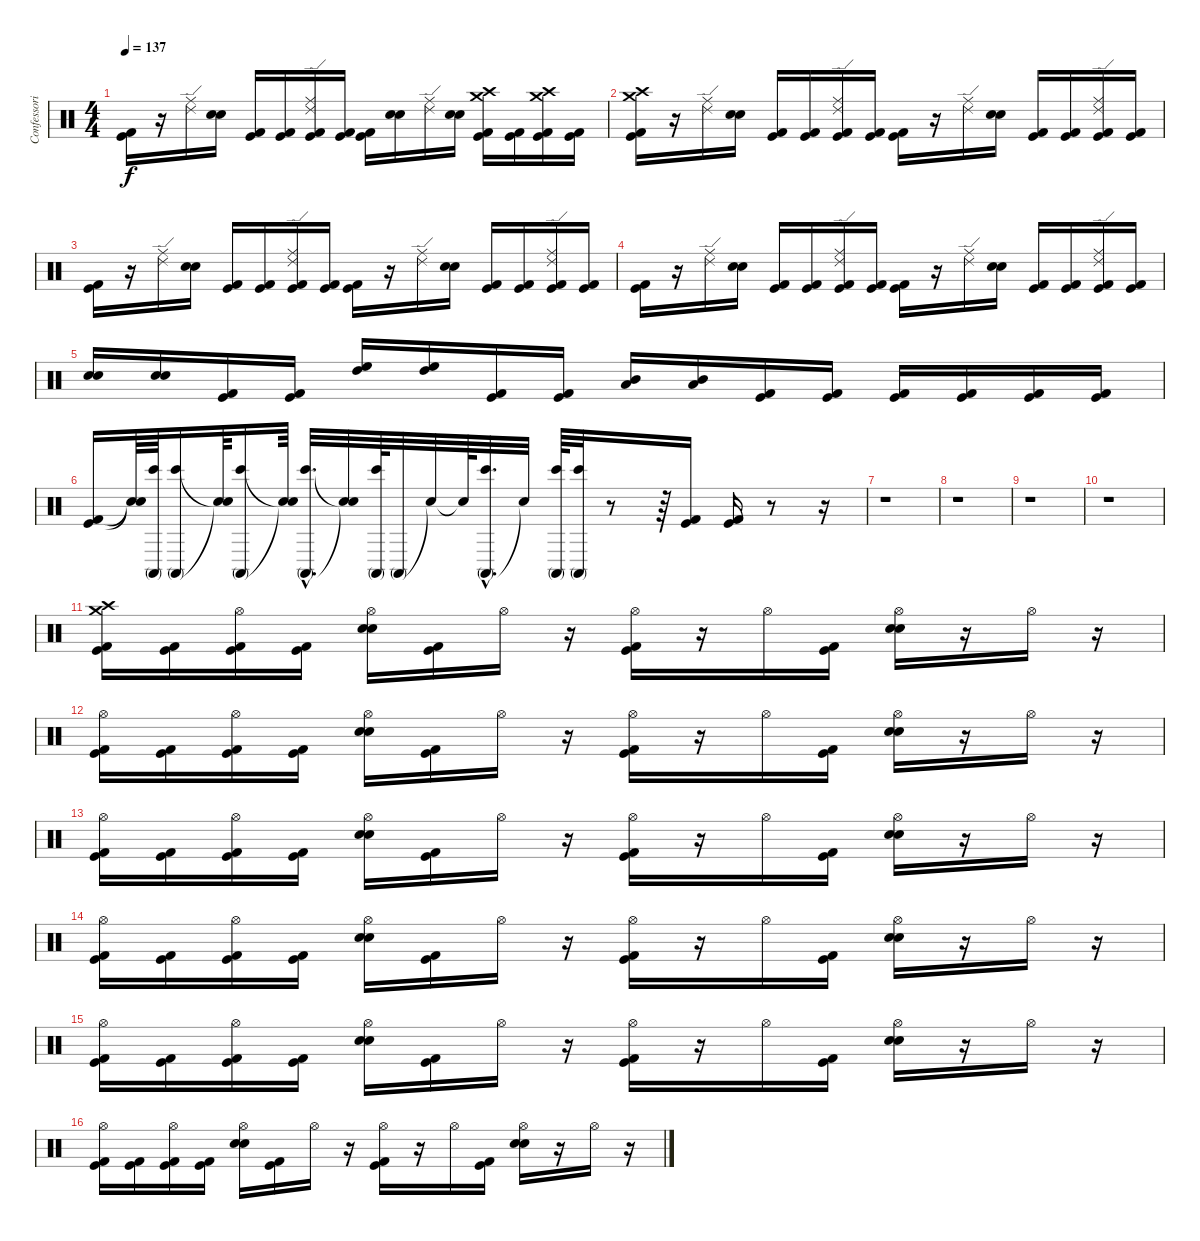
\track ("Confessori" "Confessori") {instrument percussion}
\staff {score}
\articulation defaults
\ts (4 4)
\tempo 137
\clef neutral
\ks c
("Kick (hit)" "Kick (hit) 2").16{dy f} r.16 ("Ride (middle)" "Ride (edge) 2").16 ("Electric Snare (hit)" "Snare (hit) 2").16 ("Kick (hit) 2" "Kick (hit)").16 ("Kick (hit) 2" "Kick (hit)").16 ("Ride (middle)" "Ride (edge) 2" "Kick (hit) 2" "Kick (hit)").16 ("Kick (hit) 2" "Kick (hit)").16 ("Kick (hit) 2" "Kick (hit)").16 ("Electric Snare (hit)" "Snare (hit) 2").16 ("Ride (middle)" "Ride (edge) 2").16 ("Electric Snare (hit)" "Snare (hit) 2").16 ("Crash high (hit)" "Crash medium (hit)" "Kick (hit) 2" "Kick (hit)").16 ("Kick (hit) 2" "Kick (hit)").16 ("Crash high (hit)" "Crash medium (hit)" "Kick (hit) 2" "Kick (hit)").16 ("Kick (hit) 2" "Kick (hit)").16 |
("Crash high (hit)" "Crash medium (hit)" "Kick (hit) 2" "Kick (hit)").16 r.16 ("Ride (middle)" "Ride (edge) 2").16 ("Electric Snare (hit)" "Snare (hit) 2").16 ("Kick (hit) 2" "Kick (hit)").16 ("Kick (hit) 2" "Kick (hit)").16 ("Ride (middle)" "Ride (edge) 2" "Kick (hit) 2" "Kick (hit)").16 ("Kick (hit) 2" "Kick (hit)").16 ("Kick (hit) 2" "Kick (hit)").16 r.16 ("Ride (middle)" "Ride (edge) 2").16 ("Electric Snare (hit)" "Snare (hit) 2").16 ("Kick (hit) 2" "Kick (hit)").16 ("Kick (hit) 2" "Kick (hit)").16 ("Ride (middle)" "Ride (edge) 2" "Kick (hit) 2" "Kick (hit)").16 ("Kick (hit) 2" "Kick (hit)").16 |
("Kick (hit)" "Kick (hit) 2").16 r.16 ("Ride (middle)" "Ride (edge) 2").16 ("Electric Snare (hit)" "Snare (hit) 2").16 ("Kick (hit) 2" "Kick (hit)").16 ("Kick (hit) 2" "Kick (hit)").16 ("Ride (middle)" "Ride (edge) 2" "Kick (hit) 2" "Kick (hit)").16 ("Kick (hit) 2" "Kick (hit)").16 ("Kick (hit) 2" "Kick (hit)").16 r.16 ("Ride (middle)" "Ride (edge) 2").16 ("Electric Snare (hit)" "Snare (hit) 2").16 ("Kick (hit) 2" "Kick (hit)").16 ("Kick (hit) 2" "Kick (hit)").16 ("Ride (middle)" "Ride (edge) 2" "Kick (hit) 2" "Kick (hit)").16 ("Kick (hit) 2" "Kick (hit)").16 |
("Kick (hit)" "Kick (hit) 2").16 r.16 ("Ride (middle)" "Ride (edge) 2").16 ("Electric Snare (hit)" "Snare (hit) 2").16 ("Kick (hit) 2" "Kick (hit)").16 ("Kick (hit) 2" "Kick (hit)").16 ("Ride (middle)" "Ride (edge) 2" "Kick (hit) 2" "Kick (hit)").16 ("Kick (hit) 2" "Kick (hit)").16 ("Kick (hit) 2" "Kick (hit)").16 r.16 ("Ride (middle)" "Ride (edge) 2").16 ("Electric Snare (hit)" "Snare (hit) 2").16 ("Kick (hit) 2" "Kick (hit)").16 ("Kick (hit) 2" "Kick (hit)").16 ("Ride (middle)" "Ride (edge) 2" "Kick (hit) 2" "Kick (hit)").16 ("Kick (hit) 2" "Kick (hit)").16 |
("Electric Snare (hit)" "Snare (hit) 2").16 ("Electric Snare (hit)" "Snare (hit) 2").16 ("Kick (hit) 2" "Kick (hit)").16 ("Kick (hit) 2" "Kick (hit)").16 ("High Tom (hit)" "High Floor Tom (hit)").16 ("High Floor Tom (hit)" "High Tom (hit)").16 ("Kick (hit) 2" "Kick (hit)").16 ("Kick (hit) 2" "Kick (hit)").16 ("Mid Tom (hit)" "Low Tom (hit)").16 ("Mid Tom (hit)" "Low Tom (hit)").16 ("Kick (hit) 2" "Kick (hit)").16 ("Kick (hit) 2" "Kick (hit)").16 ("Kick (hit) 2" "Kick (hit)").16 ("Kick (hit) 2" "Kick (hit)").16 ("Kick (hit) 2" "Kick (hit)").16 ("Kick (hit) 2" "Kick (hit)").16 |
("Kick (hit)" "Kick (hit) 2").16 ("Snare (hit)"{t} "Snare (hit)"{t}).64 ("Conga high (mute)" "Bongo High (hit)").64 ("Conga high (mute)" "Bongo High (hit)").16 ("Snare (hit)"{t} "Snare (hit)"{t}).64 ("Conga high (mute)" "Bongo High (hit)").16 ("Snare (hit)"{t} "Snare (hit)"{t}).64 ("Bongo High (hit)"{hac} "Conga high (mute)"{hac}).32{d} ("Snare (hit)"{t} "Snare (hit)"{t}).32 ("Bongo High (hit)" "Conga high (mute)").64 "Conga high (mute)".32 "Snare (hit)"{t}.32 "Snare (hit)"{t}.64 ("Conga high (mute)"{hac} "Bongo High (hit)"{hac}).32{d} "Snare (hit)"{t}.32 ("Conga high (mute)" "Bongo High (hit)").64 ("Conga high (mute)" "Bongo High (hit)").32 r.8 r.64 ("Kick (hit) 2" "Kick (hit)").16 ("Kick (hit) 2" "Kick (hit)").16 r.8 r.16 |
r.1 |
r.1 |
r.1 |
r.1 |
("Crash high (hit)" "Crash medium (hit)" "Kick (hit) 2" "Kick (hit)").16 ("Kick (hit) 2" "Kick (hit)").16 ("Hi-Hat (open)" "Kick (hit) 2" "Kick (hit)").16 ("Kick (hit) 2" "Kick (hit)").16 ("Hi-Hat (open)" "Electric Snare (hit)" "Snare (hit) 2").16 ("Kick (hit) 2" "Kick (hit)").16 "Hi-Hat (open)".16 r.16 ("Kick (hit) 2" "Kick (hit)" "Hi-Hat (open)").16 r.16 "Hi-Hat (open)".16 ("Kick (hit) 2" "Kick (hit)").16 ("Electric Snare (hit)" "Snare (hit) 2" "Hi-Hat (open)").16 r.16 "Hi-Hat (open)".16 r.16 |
("Hi-Hat (open)" "Kick (hit) 2" "Kick (hit)").16 ("Kick (hit) 2" "Kick (hit)").16 ("Hi-Hat (open)" "Kick (hit) 2" "Kick (hit)").16 ("Kick (hit) 2" "Kick (hit)").16 ("Hi-Hat (open)" "Electric Snare (hit)" "Snare (hit) 2").16 ("Kick (hit) 2" "Kick (hit)").16 "Hi-Hat (open)".16 r.16 ("Kick (hit) 2" "Kick (hit)" "Hi-Hat (open)").16 r.16 "Hi-Hat (open)".16 ("Kick (hit) 2" "Kick (hit)").16 ("Electric Snare (hit)" "Snare (hit) 2" "Hi-Hat (open)").16 r.16 "Hi-Hat (open)".16 r.16 |
("Hi-Hat (open)" "Kick (hit) 2" "Kick (hit)").16 ("Kick (hit) 2" "Kick (hit)").16 ("Hi-Hat (open)" "Kick (hit) 2" "Kick (hit)").16 ("Kick (hit) 2" "Kick (hit)").16 ("Hi-Hat (open)" "Electric Snare (hit)" "Snare (hit) 2").16 ("Kick (hit) 2" "Kick (hit)").16 "Hi-Hat (open)".16 r.16 ("Kick (hit) 2" "Kick (hit)" "Hi-Hat (open)").16 r.16 "Hi-Hat (open)".16 ("Kick (hit) 2" "Kick (hit)").16 ("Electric Snare (hit)" "Snare (hit) 2" "Hi-Hat (open)").16 r.16 "Hi-Hat (open)".16 r.16 |
("Hi-Hat (open)" "Kick (hit) 2" "Kick (hit)").16 ("Kick (hit) 2" "Kick (hit)").16 ("Hi-Hat (open)" "Kick (hit) 2" "Kick (hit)").16 ("Kick (hit) 2" "Kick (hit)").16 ("Hi-Hat (open)" "Electric Snare (hit)" "Snare (hit) 2").16 ("Kick (hit) 2" "Kick (hit)").16 "Hi-Hat (open)".16 r.16 ("Kick (hit) 2" "Kick (hit)" "Hi-Hat (open)").16 r.16 "Hi-Hat (open)".16 ("Kick (hit) 2" "Kick (hit)").16 ("Electric Snare (hit)" "Snare (hit) 2" "Hi-Hat (open)").16 r.16 "Hi-Hat (open)".16 r.16 |
("Hi-Hat (open)" "Kick (hit) 2" "Kick (hit)").16 ("Kick (hit) 2" "Kick (hit)").16 ("Hi-Hat (open)" "Kick (hit) 2" "Kick (hit)").16 ("Kick (hit) 2" "Kick (hit)").16 ("Hi-Hat (open)" "Electric Snare (hit)" "Snare (hit) 2").16 ("Kick (hit) 2" "Kick (hit)").16 "Hi-Hat (open)".16 r.16 ("Kick (hit) 2" "Kick (hit)" "Hi-Hat (open)").16 r.16 "Hi-Hat (open)".16 ("Kick (hit) 2" "Kick (hit)").16 ("Electric Snare (hit)" "Snare (hit) 2" "Hi-Hat (open)").16 r.16 "Hi-Hat (open)".16 r.16 |
("Hi-Hat (open)" "Kick (hit) 2" "Kick (hit)").16 ("Kick (hit) 2" "Kick (hit)").16 ("Hi-Hat (open)" "Kick (hit) 2" "Kick (hit)").16 ("Kick (hit) 2" "Kick (hit)").16 ("Hi-Hat (open)" "Electric Snare (hit)" "Snare (hit) 2").16 ("Kick (hit) 2" "Kick (hit)").16 "Hi-Hat (open)".16 r.16 ("Kick (hit) 2" "Kick (hit)" "Hi-Hat (open)").16 r.16 "Hi-Hat (open)".16 ("Kick (hit) 2" "Kick (hit)").16 ("Electric Snare (hit)" "Snare (hit) 2" "Hi-Hat (open)").16 r.16 "Hi-Hat (open)".16 r.16
